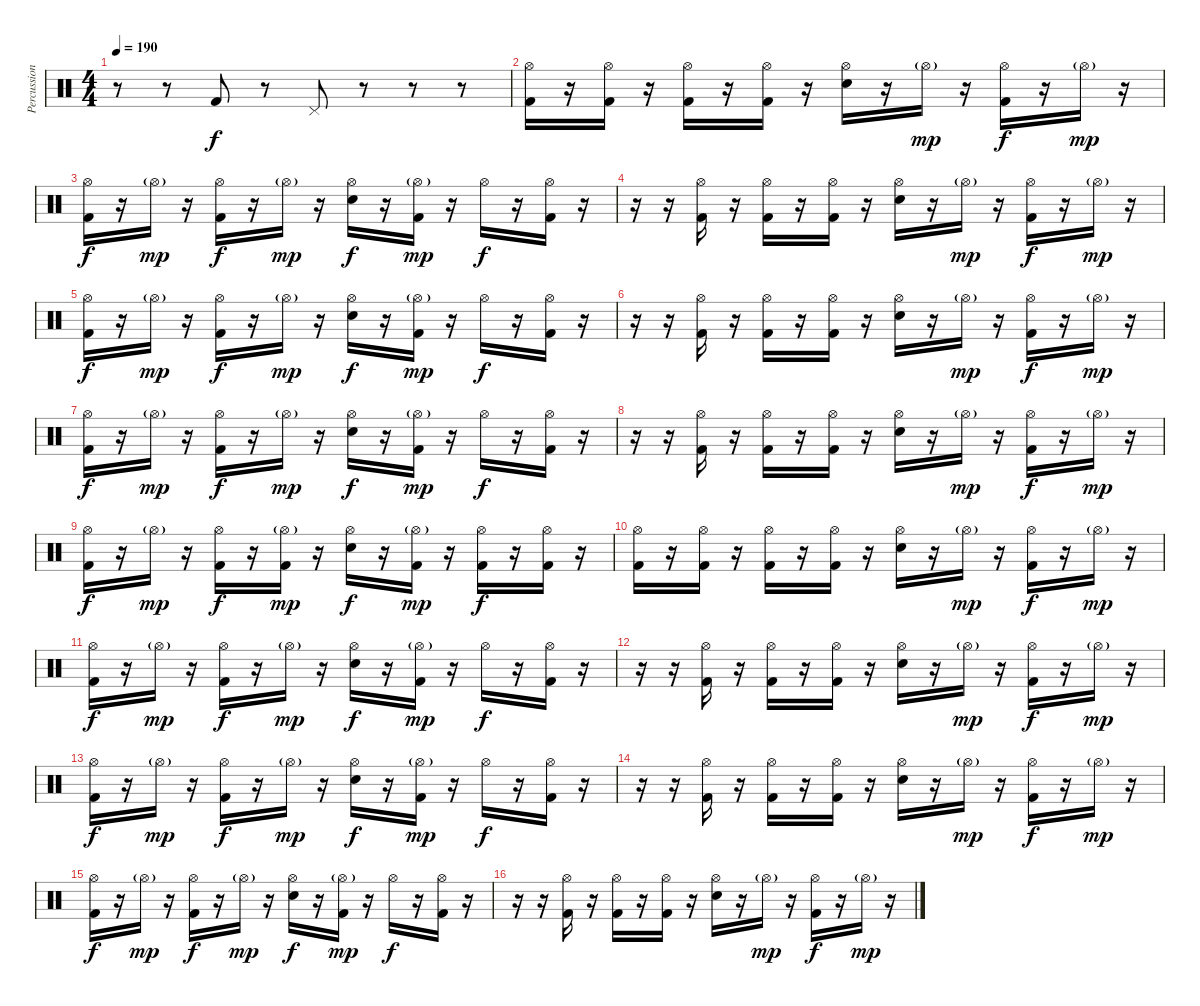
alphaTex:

\track ("Percussion" "Percussion") {instrument percussion}
\staff {score}
\articulation defaults
\ts (4 4)
\tempo 190
\clef neutral
\ks c
r.8{dy f} r.8 "Kick (hit) 2".8 r.8 "Pedal Hi-Hat (hit)".8 r.8 r.8 r.8 |
("Hi-Hat (open)" "Kick (hit) 2").16 r.16 ("Hi-Hat (open)" "Kick (hit) 2").16 r.16 ("Hi-Hat (open)" "Kick (hit) 2").16 r.16 ("Hi-Hat (open)" "Kick (hit) 2").16 r.16 ("Hi-Hat (open)" "Electric Snare (hit)").16 r.16 "Hi-Hat (open)"{g}.16{dy mp} r.16 ("Hi-Hat (open)" "Kick (hit) 2").16{dy f} r.16 "Hi-Hat (open)"{g}.16{dy mp} r.16 |
("Hi-Hat (open)" "Kick (hit) 2").16{dy f} r.16 "Hi-Hat (open)"{g}.16{dy mp} r.16 ("Hi-Hat (open)" "Kick (hit) 2").16{dy f} r.16 "Hi-Hat (open)"{g}.16{dy mp} r.16 ("Hi-Hat (open)" "Electric Snare (hit)").16{dy f} r.16 ("Hi-Hat (open)"{g} "Kick (hit) 2").16{dy mp} r.16 "Hi-Hat (open)".16{dy f} r.16 ("Hi-Hat (open)" "Kick (hit) 2").16 r.16 |
r.16 r.16 ("Hi-Hat (open)" "Kick (hit) 2").16 r.16 ("Hi-Hat (open)" "Kick (hit) 2").16 r.16 ("Hi-Hat (open)" "Kick (hit) 2").16 r.16 ("Hi-Hat (open)" "Electric Snare (hit)").16 r.16 "Hi-Hat (open)"{g}.16{dy mp} r.16 ("Hi-Hat (open)" "Kick (hit) 2").16{dy f} r.16 "Hi-Hat (open)"{g}.16{dy mp} r.16 |
("Hi-Hat (open)" "Kick (hit) 2").16{dy f} r.16 "Hi-Hat (open)"{g}.16{dy mp} r.16 ("Hi-Hat (open)" "Kick (hit) 2").16{dy f} r.16 "Hi-Hat (open)"{g}.16{dy mp} r.16 ("Hi-Hat (open)" "Electric Snare (hit)").16{dy f} r.16 ("Hi-Hat (open)"{g} "Kick (hit) 2").16{dy mp} r.16 "Hi-Hat (open)".16{dy f} r.16 ("Hi-Hat (open)" "Kick (hit) 2").16 r.16 |
r.16 r.16 ("Hi-Hat (open)" "Kick (hit) 2").16 r.16 ("Hi-Hat (open)" "Kick (hit) 2").16 r.16 ("Hi-Hat (open)" "Kick (hit) 2").16 r.16 ("Hi-Hat (open)" "Electric Snare (hit)").16 r.16 "Hi-Hat (open)"{g}.16{dy mp} r.16 ("Hi-Hat (open)" "Kick (hit) 2").16{dy f} r.16 "Hi-Hat (open)"{g}.16{dy mp} r.16 |
("Hi-Hat (open)" "Kick (hit) 2").16{dy f} r.16 "Hi-Hat (open)"{g}.16{dy mp} r.16 ("Hi-Hat (open)" "Kick (hit) 2").16{dy f} r.16 "Hi-Hat (open)"{g}.16{dy mp} r.16 ("Hi-Hat (open)" "Electric Snare (hit)").16{dy f} r.16 ("Hi-Hat (open)"{g} "Kick (hit) 2").16{dy mp} r.16 "Hi-Hat (open)".16{dy f} r.16 ("Hi-Hat (open)" "Kick (hit) 2").16 r.16 |
r.16 r.16 ("Hi-Hat (open)" "Kick (hit) 2").16 r.16 ("Hi-Hat (open)" "Kick (hit) 2").16 r.16 ("Hi-Hat (open)" "Kick (hit) 2").16 r.16 ("Hi-Hat (open)" "Electric Snare (hit)").16 r.16 "Hi-Hat (open)"{g}.16{dy mp} r.16 ("Hi-Hat (open)" "Kick (hit) 2").16{dy f} r.16 "Hi-Hat (open)"{g}.16{dy mp} r.16 |
("Hi-Hat (open)" "Kick (hit) 2").16{dy f} r.16 "Hi-Hat (open)"{g}.16{dy mp} r.16 ("Hi-Hat (open)" "Kick (hit) 2").16{dy f} r.16 ("Hi-Hat (open)"{g} "Kick (hit) 2").16{dy mp} r.16 ("Hi-Hat (open)" "Electric Snare (hit)").16{dy f} r.16 ("Hi-Hat (open)"{g} "Kick (hit) 2").16{dy mp} r.16 ("Hi-Hat (open)" "Kick (hit) 2").16{dy f} r.16 ("Hi-Hat (open)" "Kick (hit) 2").16 r.16 |
("Hi-Hat (open)" "Kick (hit) 2").16 r.16 ("Hi-Hat (open)" "Kick (hit) 2").16 r.16 ("Hi-Hat (open)" "Kick (hit) 2").16 r.16 ("Hi-Hat (open)" "Kick (hit) 2").16 r.16 ("Hi-Hat (open)" "Electric Snare (hit)").16 r.16 "Hi-Hat (open)"{g}.16{dy mp} r.16 ("Hi-Hat (open)" "Kick (hit) 2").16{dy f} r.16 "Hi-Hat (open)"{g}.16{dy mp} r.16 |
("Hi-Hat (open)" "Kick (hit) 2").16{dy f} r.16 "Hi-Hat (open)"{g}.16{dy mp} r.16 ("Hi-Hat (open)" "Kick (hit) 2").16{dy f} r.16 "Hi-Hat (open)"{g}.16{dy mp} r.16 ("Hi-Hat (open)" "Electric Snare (hit)").16{dy f} r.16 ("Hi-Hat (open)"{g} "Kick (hit) 2").16{dy mp} r.16 "Hi-Hat (open)".16{dy f} r.16 ("Hi-Hat (open)" "Kick (hit) 2").16 r.16 |
r.16 r.16 ("Hi-Hat (open)" "Kick (hit) 2").16 r.16 ("Hi-Hat (open)" "Kick (hit) 2").16 r.16 ("Hi-Hat (open)" "Kick (hit) 2").16 r.16 ("Hi-Hat (open)" "Electric Snare (hit)").16 r.16 "Hi-Hat (open)"{g}.16{dy mp} r.16 ("Hi-Hat (open)" "Kick (hit) 2").16{dy f} r.16 "Hi-Hat (open)"{g}.16{dy mp} r.16 |
("Hi-Hat (open)" "Kick (hit) 2").16{dy f} r.16 "Hi-Hat (open)"{g}.16{dy mp} r.16 ("Hi-Hat (open)" "Kick (hit) 2").16{dy f} r.16 "Hi-Hat (open)"{g}.16{dy mp} r.16 ("Hi-Hat (open)" "Electric Snare (hit)").16{dy f} r.16 ("Hi-Hat (open)"{g} "Kick (hit) 2").16{dy mp} r.16 "Hi-Hat (open)".16{dy f} r.16 ("Hi-Hat (open)" "Kick (hit) 2").16 r.16 |
r.16 r.16 ("Hi-Hat (open)" "Kick (hit) 2").16 r.16 ("Hi-Hat (open)" "Kick (hit) 2").16 r.16 ("Hi-Hat (open)" "Kick (hit) 2").16 r.16 ("Hi-Hat (open)" "Electric Snare (hit)").16 r.16 "Hi-Hat (open)"{g}.16{dy mp} r.16 ("Hi-Hat (open)" "Kick (hit) 2").16{dy f} r.16 "Hi-Hat (open)"{g}.16{dy mp} r.16 |
("Hi-Hat (open)" "Kick (hit) 2").16{dy f} r.16 "Hi-Hat (open)"{g}.16{dy mp} r.16 ("Hi-Hat (open)" "Kick (hit) 2").16{dy f} r.16 "Hi-Hat (open)"{g}.16{dy mp} r.16 ("Hi-Hat (open)" "Electric Snare (hit)").16{dy f} r.16 ("Hi-Hat (open)"{g} "Kick (hit) 2").16{dy mp} r.16 "Hi-Hat (open)".16{dy f} r.16 ("Hi-Hat (open)" "Kick (hit) 2").16 r.16 |
r.16 r.16 ("Hi-Hat (open)" "Kick (hit) 2").16 r.16 ("Hi-Hat (open)" "Kick (hit) 2").16 r.16 ("Hi-Hat (open)" "Kick (hit) 2").16 r.16 ("Hi-Hat (open)" "Electric Snare (hit)").16 r.16 "Hi-Hat (open)"{g}.16{dy mp} r.16 ("Hi-Hat (open)" "Kick (hit) 2").16{dy f} r.16 "Hi-Hat (open)"{g}.16{dy mp} r.16
